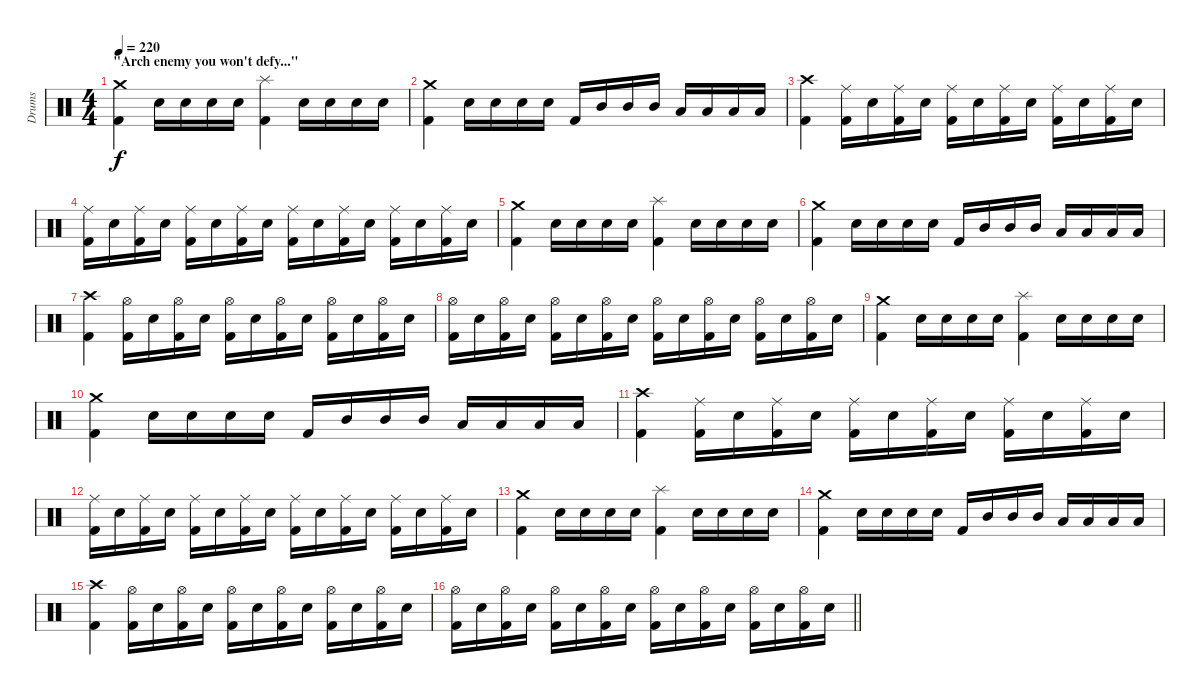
\track ("Drums" "Drums") {instrument percussion}
\staff {score}
\articulation defaults
\ts (4 4)
\section ("" "\"Arch enemy you won't defy...\"")
\tempo 220
\clef neutral
\ks c
("Crash medium (hit)" "Kick (hit) 2").4{dy f} "Snare (hit) 2".16 "Snare (hit) 2".16 "Snare (hit) 2".16 "Snare (hit) 2".16 ("Splash (hit)" "Kick (hit) 2").4 "Snare (hit) 2".16 "Snare (hit) 2".16 "Snare (hit) 2".16 "Snare (hit) 2".16 |
("Crash medium (hit)" "Kick (hit) 2").4 "Snare (hit) 2".16 "Snare (hit) 2".16 "Snare (hit) 2".16 "Snare (hit) 2".16 "Kick (hit) 2".16 "Mid Tom (hit)".16 "Mid Tom (hit)".16 "Mid Tom (hit)".16 "Low Tom (hit)".16 "Low Tom (hit)".16 "Low Tom (hit)".16 "Low Tom (hit)".16 |
("Crash high (hit)" "Kick (hit) 2").4 ("Ride (middle)" "Kick (hit) 2").16 "Snare (hit) 2".16 ("Ride (middle)" "Kick (hit) 2").16 "Snare (hit) 2".16 ("Ride (middle)" "Kick (hit) 2").16 "Snare (hit) 2".16 ("Ride (middle)" "Kick (hit) 2").16 "Snare (hit) 2".16 ("Ride (middle)" "Kick (hit) 2").16 "Snare (hit) 2".16 ("Ride (middle)" "Kick (hit) 2").16 "Snare (hit) 2".16 |
("Ride (middle)" "Kick (hit) 2").16 "Snare (hit) 2".16 ("Ride (middle)" "Kick (hit) 2").16 "Snare (hit) 2".16 ("Ride (middle)" "Kick (hit) 2").16 "Snare (hit) 2".16 ("Ride (middle)" "Kick (hit) 2").16 "Snare (hit) 2".16 ("Ride (middle)" "Kick (hit) 2").16 "Snare (hit) 2".16 ("Ride (middle)" "Kick (hit) 2").16 "Snare (hit) 2".16 ("Ride (middle)" "Kick (hit) 2").16 "Snare (hit) 2".16 ("Ride (middle)" "Kick (hit) 2").16 "Snare (hit) 2".16 |
("Crash medium (hit)" "Kick (hit) 2").4 "Snare (hit) 2".16 "Snare (hit) 2".16 "Snare (hit) 2".16 "Snare (hit) 2".16 ("Splash (hit)" "Kick (hit) 2").4 "Snare (hit) 2".16 "Snare (hit) 2".16 "Snare (hit) 2".16 "Snare (hit) 2".16 |
("Crash medium (hit)" "Kick (hit) 2").4 "Snare (hit) 2".16 "Snare (hit) 2".16 "Snare (hit) 2".16 "Snare (hit) 2".16 "Kick (hit) 2".16 "Mid Tom (hit)".16 "Mid Tom (hit)".16 "Mid Tom (hit)".16 "Low Tom (hit)".16 "Low Tom (hit)".16 "Low Tom (hit)".16 "Low Tom (hit)".16 |
("Crash high (hit)" "Kick (hit) 2").4 ("Hi-Hat (open)" "Kick (hit) 2").16 "Snare (hit) 2".16 ("Hi-Hat (open)" "Kick (hit) 2").16 "Snare (hit) 2".16 ("Hi-Hat (open)" "Kick (hit) 2").16 "Snare (hit) 2".16 ("Hi-Hat (open)" "Kick (hit) 2").16 "Snare (hit) 2".16 ("Hi-Hat (open)" "Kick (hit) 2").16 "Snare (hit) 2".16 ("Hi-Hat (open)" "Kick (hit) 2").16 "Snare (hit) 2".16 |
("Hi-Hat (open)" "Kick (hit) 2").16 "Snare (hit) 2".16 ("Hi-Hat (open)" "Kick (hit) 2").16 "Snare (hit) 2".16 ("Hi-Hat (open)" "Kick (hit) 2").16 "Snare (hit) 2".16 ("Hi-Hat (open)" "Kick (hit) 2").16 "Snare (hit) 2".16 ("Hi-Hat (open)" "Kick (hit) 2").16 "Snare (hit) 2".16 ("Hi-Hat (open)" "Kick (hit) 2").16 "Snare (hit) 2".16 ("Hi-Hat (open)" "Kick (hit) 2").16 "Snare (hit) 2".16 ("Hi-Hat (open)" "Kick (hit) 2").16 "Snare (hit) 2".16 |
("Crash medium (hit)" "Kick (hit) 2").4 "Snare (hit) 2".16 "Snare (hit) 2".16 "Snare (hit) 2".16 "Snare (hit) 2".16 ("Splash (hit)" "Kick (hit) 2").4 "Snare (hit) 2".16 "Snare (hit) 2".16 "Snare (hit) 2".16 "Snare (hit) 2".16 |
("Crash medium (hit)" "Kick (hit) 2").4 "Snare (hit) 2".16 "Snare (hit) 2".16 "Snare (hit) 2".16 "Snare (hit) 2".16 "Kick (hit) 2".16 "Mid Tom (hit)".16 "Mid Tom (hit)".16 "Mid Tom (hit)".16 "Low Tom (hit)".16 "Low Tom (hit)".16 "Low Tom (hit)".16 "Low Tom (hit)".16 |
("Crash high (hit)" "Kick (hit) 2").4 ("Ride (middle)" "Kick (hit) 2").16 "Snare (hit) 2".16 ("Ride (middle)" "Kick (hit) 2").16 "Snare (hit) 2".16 ("Ride (middle)" "Kick (hit) 2").16 "Snare (hit) 2".16 ("Ride (middle)" "Kick (hit) 2").16 "Snare (hit) 2".16 ("Ride (middle)" "Kick (hit) 2").16 "Snare (hit) 2".16 ("Ride (middle)" "Kick (hit) 2").16 "Snare (hit) 2".16 |
("Ride (middle)" "Kick (hit) 2").16 "Snare (hit) 2".16 ("Ride (middle)" "Kick (hit) 2").16 "Snare (hit) 2".16 ("Ride (middle)" "Kick (hit) 2").16 "Snare (hit) 2".16 ("Ride (middle)" "Kick (hit) 2").16 "Snare (hit) 2".16 ("Ride (middle)" "Kick (hit) 2").16 "Snare (hit) 2".16 ("Ride (middle)" "Kick (hit) 2").16 "Snare (hit) 2".16 ("Ride (middle)" "Kick (hit) 2").16 "Snare (hit) 2".16 ("Ride (middle)" "Kick (hit) 2").16 "Snare (hit) 2".16 |
("Crash medium (hit)" "Kick (hit) 2").4 "Snare (hit) 2".16 "Snare (hit) 2".16 "Snare (hit) 2".16 "Snare (hit) 2".16 ("Splash (hit)" "Kick (hit) 2").4 "Snare (hit) 2".16 "Snare (hit) 2".16 "Snare (hit) 2".16 "Snare (hit) 2".16 |
("Crash medium (hit)" "Kick (hit) 2").4 "Snare (hit) 2".16 "Snare (hit) 2".16 "Snare (hit) 2".16 "Snare (hit) 2".16 "Kick (hit) 2".16 "Mid Tom (hit)".16 "Mid Tom (hit)".16 "Mid Tom (hit)".16 "Low Tom (hit)".16 "Low Tom (hit)".16 "Low Tom (hit)".16 "Low Tom (hit)".16 |
("Crash high (hit)" "Kick (hit) 2").4 ("Hi-Hat (open)" "Kick (hit) 2").16 "Snare (hit) 2".16 ("Hi-Hat (open)" "Kick (hit) 2").16 "Snare (hit) 2".16 ("Hi-Hat (open)" "Kick (hit) 2").16 "Snare (hit) 2".16 ("Hi-Hat (open)" "Kick (hit) 2").16 "Snare (hit) 2".16 ("Hi-Hat (open)" "Kick (hit) 2").16 "Snare (hit) 2".16 ("Hi-Hat (open)" "Kick (hit) 2").16 "Snare (hit) 2".16 |
\barLineRight lightlight
("Hi-Hat (open)" "Kick (hit) 2").16 "Snare (hit) 2".16 ("Hi-Hat (open)" "Kick (hit) 2").16 "Snare (hit) 2".16 ("Hi-Hat (open)" "Kick (hit) 2").16 "Snare (hit) 2".16 ("Hi-Hat (open)" "Kick (hit) 2").16 "Snare (hit) 2".16 ("Hi-Hat (open)" "Kick (hit) 2").16 "Snare (hit) 2".16 ("Hi-Hat (open)" "Kick (hit) 2").16 "Snare (hit) 2".16 ("Hi-Hat (open)" "Kick (hit) 2").16 "Snare (hit) 2".16 ("Hi-Hat (open)" "Kick (hit) 2").16 "Snare (hit) 2".16
